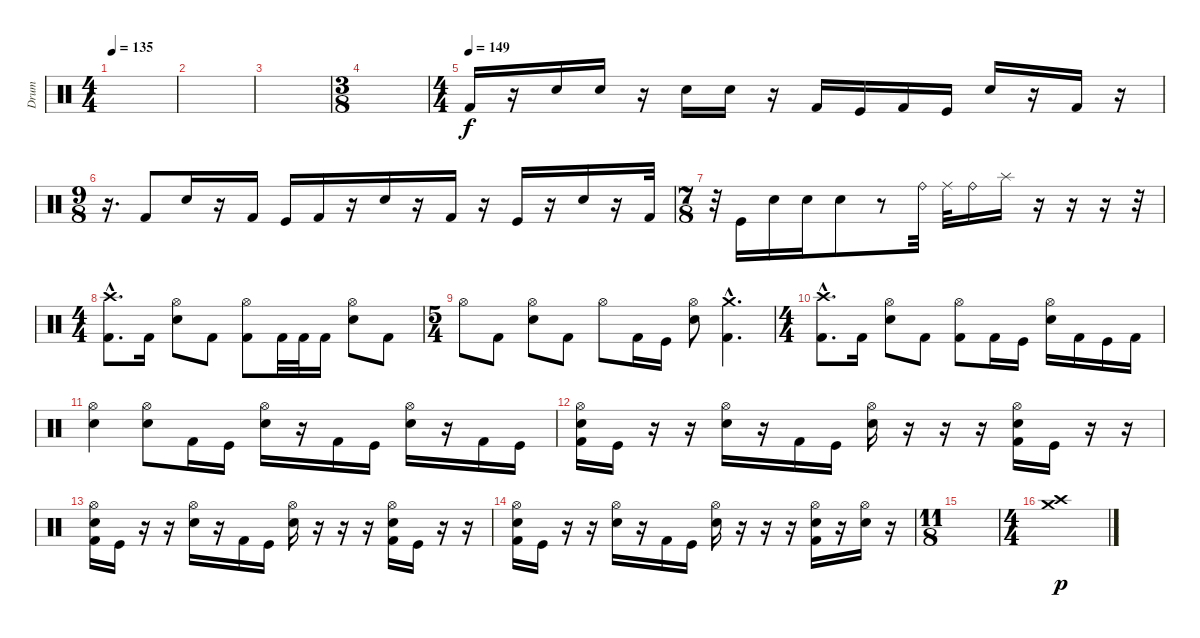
\track ("Drum" "Drum") {instrument percussion}
\staff {score}
\articulation defaults
\ts (4 4)
\tempo 135
\tempo 110
\tempo 135
\clef neutral
\ks c
|
|
|
\ts (3 8)
|
\ts (4 4)
\tempo (149)
"Kick (hit) 2".16 r.16 "Snare (hit) 2".16 "Snare (hit) 2".16 r.16 "Snare (hit) 2".16 "Snare (hit) 2".16 r.16 "Kick (hit) 2".16 "Kick (hit)".16 "Kick (hit) 2".16 "Kick (hit)".16 "Snare (hit) 2".16 r.16 "Kick (hit) 2".16 r.16 |
\ts (9 8)
r.16{d} "Kick (hit) 2".8 "Snare (hit) 2".16 r.16 "Kick (hit) 2".16 "Kick (hit)".16 "Kick (hit) 2".16 r.16 "Snare (hit) 2".16 r.16 "Kick (hit) 2".16 r.16 "Kick (hit)".16 r.16 "Snare (hit) 2".16 r.16 "Kick (hit) 2".32 |
\ts (7 8)
r.32 "Kick (hit)".16 "Snare (hit) 2".16 "Snare (hit) 2".16 "Snare (hit) 2".8 r.8 "Ride (bell)".32 "Ride (middle)".32 "Ride (bell)".16 "Splash (hit)".16 r.16 r.16 r.16 r.32 |
\ts (4 4)
("Crash high (hit)"{hac} "Kick (hit) 2"{hac}).8{d} "Kick (hit) 2".16 ("Hi-Hat (open)" "Snare (hit) 2").8 "Kick (hit) 2".8 ("Hi-Hat (open)" "Kick (hit) 2").8 "Kick (hit) 2".32 "Kick (hit) 2".32 "Kick (hit) 2".16 ("Hi-Hat (open)" "Snare (hit) 2").8 "Kick (hit) 2".8 |
\ts (5 4)
"Hi-Hat (open)".8 "Kick (hit) 2".8 ("Hi-Hat (open)" "Snare (hit) 2").8 "Kick (hit) 2".8 "Hi-Hat (open)".8 "Kick (hit) 2".16 "Kick (hit)".16 ("Hi-Hat (open)" "Snare (hit) 2").8 ("Crash medium (hit)"{hac} "Kick (hit) 2"{hac}).4{d} |
\ts (4 4)
("Crash high (hit)"{hac} "Kick (hit) 2"{hac}).8{d} "Kick (hit) 2".16 ("Hi-Hat (open)" "Snare (hit) 2").8 "Kick (hit) 2".8 ("Hi-Hat (open)" "Kick (hit) 2").8 "Kick (hit) 2".16 "Kick (hit)".16 ("Hi-Hat (open)" "Snare (hit) 2").16 "Kick (hit) 2".16 "Kick (hit)".16 "Kick (hit) 2".16 |
("Hi-Hat (open)" "Snare (hit) 2").4 ("Hi-Hat (open)" "Snare (hit) 2").8 "Kick (hit) 2".16 "Kick (hit)".16 ("Hi-Hat (open)" "Snare (hit) 2").16 r.16 "Kick (hit) 2".16 "Kick (hit)".16 ("Hi-Hat (open)" "Snare (hit) 2").16 r.16 "Kick (hit) 2".16 "Kick (hit)".16 |
("Hi-Hat (open)" "Snare (hit) 2" "Kick (hit) 2").16 "Kick (hit)".16 r.16 r.16 ("Hi-Hat (open)" "Snare (hit) 2").16 r.16 "Kick (hit) 2".16 "Kick (hit)".16 ("Hi-Hat (open)" "Snare (hit) 2").16 r.16 r.16 r.16 ("Hi-Hat (open)" "Snare (hit) 2" "Kick (hit) 2").16 "Kick (hit)".16 r.16 r.16 |
("Hi-Hat (open)" "Snare (hit) 2" "Kick (hit) 2").16 "Kick (hit)".16 r.16 r.16 ("Hi-Hat (open)" "Snare (hit) 2").16 r.16 "Kick (hit) 2".16 "Kick (hit)".16 ("Hi-Hat (open)" "Snare (hit) 2").16 r.16 r.16 r.16 ("Hi-Hat (open)" "Snare (hit) 2" "Kick (hit) 2").16 "Kick (hit)".16 r.16 r.16 |
("Hi-Hat (open)" "Snare (hit) 2" "Kick (hit) 2").16 "Kick (hit)".16 r.16 r.16 ("Hi-Hat (open)" "Snare (hit) 2").16 r.16 "Kick (hit) 2".16 "Kick (hit)".16 ("Hi-Hat (open)" "Snare (hit) 2").16 r.16 r.16 r.16 ("Hi-Hat (open)" "Snare (hit) 2" "Kick (hit) 2").16 r.16 ("Hi-Hat (open)" "Snare (hit) 2").16 r.16 |
\ts (11 8)
|
\ts (4 4)
("Crash high (hit)" "Crash medium (hit)").1{dy p}
